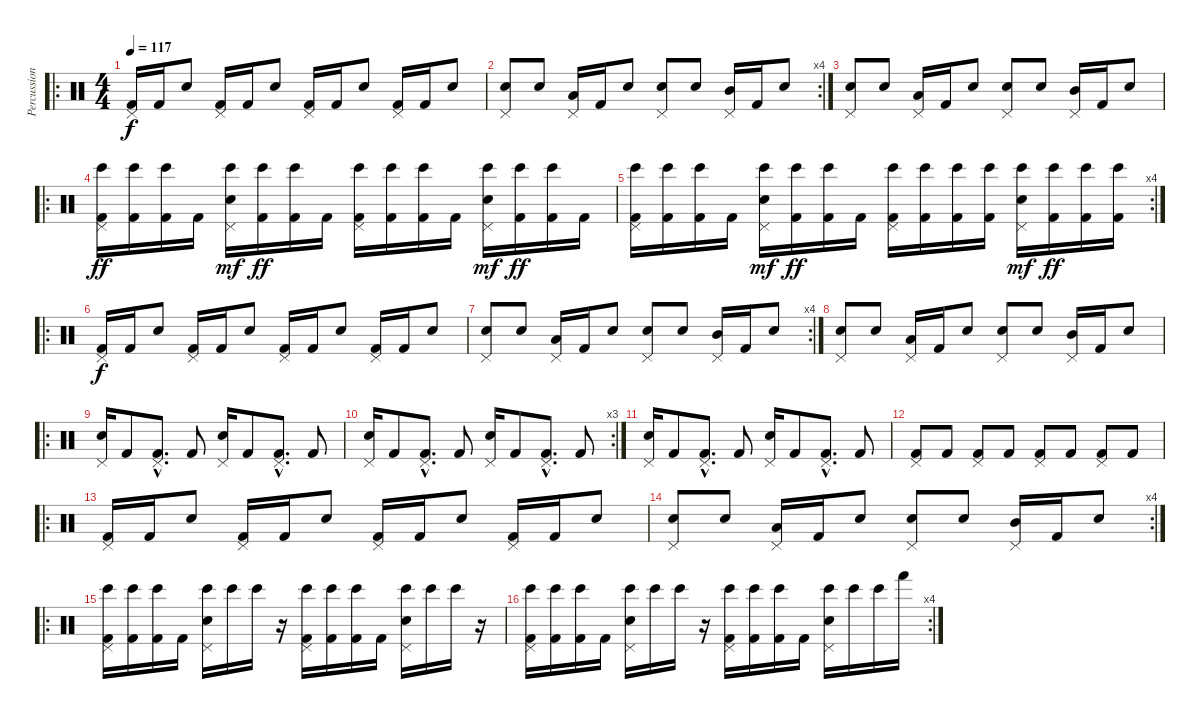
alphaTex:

\track ("Percussions" "Percussion") {instrument percussion}
\staff {score}
\articulation defaults
\ro
\ts (4 4)
\tempo 117
\clef neutral
\ks c
("Pedal Hi-Hat (hit)" "Kick (hit) 2").16{dy f} "Kick (hit) 2".16 "Snare (hit) 2".8 ("Pedal Hi-Hat (hit)" "Kick (hit) 2").16 "Kick (hit) 2".16 "Snare (hit) 2".8 ("Pedal Hi-Hat (hit)" "Kick (hit) 2").16 "Kick (hit) 2".16 "Snare (hit) 2".8 ("Pedal Hi-Hat (hit)" "Kick (hit) 2").16 "Kick (hit) 2".16 "Snare (hit) 2".8 |
\rc 4
("Pedal Hi-Hat (hit)" "Snare (hit) 2").8 "Snare (hit) 2".8 ("Pedal Hi-Hat (hit)" "Low Tom (hit)").16 "Kick (hit) 2".16 "Snare (hit) 2".8 ("Pedal Hi-Hat (hit)" "Snare (hit) 2").8 "Snare (hit) 2".8 ("Pedal Hi-Hat (hit)" "Mid Tom (hit)").16 "Kick (hit) 2".16 "Snare (hit) 2".8 |
("Pedal Hi-Hat (hit)" "Snare (hit) 2").8 "Snare (hit) 2".8 ("Pedal Hi-Hat (hit)" "Low Tom (hit)").16 "Kick (hit) 2".16 "Snare (hit) 2".8 ("Pedal Hi-Hat (hit)" "Snare (hit) 2").8 "Snare (hit) 2".8 ("Pedal Hi-Hat (hit)" "Mid Tom (hit)").16 "Kick (hit) 2".16 "Snare (hit) 2".8 |
\ro
("Pedal Hi-Hat (hit)" "Bongo High (hit)" "Kick (hit) 2").16{dy ff} ("Bongo High (hit)" "Kick (hit) 2").16 ("Bongo High (hit)" "Kick (hit) 2").16 "Kick (hit) 2".16 ("Pedal Hi-Hat (hit)" "Bongo High (hit)" "Snare (hit) 2").16{dy mf} ("Bongo High (hit)" "Kick (hit) 2").16{dy ff} ("Bongo High (hit)" "Kick (hit) 2").16 "Kick (hit) 2".16 ("Pedal Hi-Hat (hit)" "Bongo High (hit)" "Kick (hit) 2").16 ("Bongo High (hit)" "Kick (hit) 2").16 ("Bongo High (hit)" "Kick (hit) 2").16 "Kick (hit) 2".16 ("Pedal Hi-Hat (hit)" "Bongo High (hit)" "Snare (hit) 2").16{dy mf} ("Bongo High (hit)" "Kick (hit) 2").16{dy ff} ("Bongo High (hit)" "Kick (hit) 2").16 "Kick (hit) 2".16 |
\rc 4
("Pedal Hi-Hat (hit)" "Bongo High (hit)" "Kick (hit) 2").16 ("Bongo High (hit)" "Kick (hit) 2").16 ("Bongo High (hit)" "Kick (hit) 2").16 "Kick (hit) 2".16 ("Pedal Hi-Hat (hit)" "Bongo High (hit)" "Snare (hit) 2").16{dy mf} ("Bongo High (hit)" "Kick (hit) 2").16{dy ff} ("Bongo High (hit)" "Kick (hit) 2").16 "Kick (hit) 2".16 ("Pedal Hi-Hat (hit)" "Bongo High (hit)" "Kick (hit) 2").16 ("Bongo High (hit)" "Kick (hit) 2").16 ("Bongo High (hit)" "Kick (hit) 2").16 ("Bongo High (hit)" "Kick (hit) 2").16 ("Pedal Hi-Hat (hit)" "Bongo High (hit)" "Snare (hit) 2").16{dy mf} ("Bongo High (hit)" "Kick (hit) 2").16{dy ff} ("Bongo High (hit)" "Kick (hit) 2").16 ("Bongo High (hit)" "Kick (hit) 2").16 |
\ro
("Pedal Hi-Hat (hit)" "Kick (hit) 2").16{dy f} "Kick (hit) 2".16 "Snare (hit) 2".8 ("Pedal Hi-Hat (hit)" "Kick (hit) 2").16 "Kick (hit) 2".16 "Snare (hit) 2".8 ("Pedal Hi-Hat (hit)" "Kick (hit) 2").16 "Kick (hit) 2".16 "Snare (hit) 2".8 ("Pedal Hi-Hat (hit)" "Kick (hit) 2").16 "Kick (hit) 2".16 "Snare (hit) 2".8 |
\rc 4
("Pedal Hi-Hat (hit)" "Snare (hit) 2").8 "Snare (hit) 2".8 ("Pedal Hi-Hat (hit)" "Low Tom (hit)").16 "Kick (hit) 2".16 "Snare (hit) 2".8 ("Pedal Hi-Hat (hit)" "Snare (hit) 2").8 "Snare (hit) 2".8 ("Pedal Hi-Hat (hit)" "Mid Tom (hit)").16 "Kick (hit) 2".16 "Snare (hit) 2".8 |
("Pedal Hi-Hat (hit)" "Snare (hit) 2").8 "Snare (hit) 2".8 ("Pedal Hi-Hat (hit)" "Low Tom (hit)").16 "Kick (hit) 2".16 "Snare (hit) 2".8 ("Pedal Hi-Hat (hit)" "Snare (hit) 2").8 "Snare (hit) 2".8 ("Pedal Hi-Hat (hit)" "Mid Tom (hit)").16 "Kick (hit) 2".16 "Snare (hit) 2".8 |
\ro
("Pedal Hi-Hat (hit)" "Snare (hit) 2").16 "Kick (hit) 2".8 ("Pedal Hi-Hat (hit)"{hac} "Kick (hit) 2"{hac}).8{d} "Kick (hit) 2".8 ("Pedal Hi-Hat (hit)" "Snare (hit) 2").16 "Kick (hit) 2".8 ("Pedal Hi-Hat (hit)"{hac} "Kick (hit) 2"{hac}).8{d} "Kick (hit) 2".8 |
\rc 3
("Pedal Hi-Hat (hit)" "Snare (hit) 2").16 "Kick (hit) 2".8 ("Pedal Hi-Hat (hit)"{hac} "Kick (hit) 2"{hac}).8{d} "Kick (hit) 2".8 ("Pedal Hi-Hat (hit)" "Snare (hit) 2").16 "Kick (hit) 2".8 ("Pedal Hi-Hat (hit)"{hac} "Kick (hit) 2"{hac}).8{d} "Kick (hit) 2".8 |
("Pedal Hi-Hat (hit)" "Snare (hit) 2").16 "Kick (hit) 2".8 ("Pedal Hi-Hat (hit)"{hac} "Kick (hit) 2"{hac}).8{d} "Kick (hit) 2".8 ("Pedal Hi-Hat (hit)" "Snare (hit) 2").16 "Kick (hit) 2".8 ("Pedal Hi-Hat (hit)"{hac} "Kick (hit) 2"{hac}).8{d} "Kick (hit) 2".8 |
("Pedal Hi-Hat (hit)" "Kick (hit) 2").8 "Kick (hit) 2".8 ("Pedal Hi-Hat (hit)" "Kick (hit) 2").8 "Kick (hit) 2".8 ("Pedal Hi-Hat (hit)" "Kick (hit) 2").8 "Kick (hit) 2".8 ("Pedal Hi-Hat (hit)" "Kick (hit) 2").8 "Kick (hit) 2".8 |
\ro
("Pedal Hi-Hat (hit)" "Kick (hit) 2").16 "Kick (hit) 2".16 "Snare (hit) 2".8 ("Pedal Hi-Hat (hit)" "Kick (hit) 2").16 "Kick (hit) 2".16 "Snare (hit) 2".8 ("Pedal Hi-Hat (hit)" "Kick (hit) 2").16 "Kick (hit) 2".16 "Snare (hit) 2".8 ("Pedal Hi-Hat (hit)" "Kick (hit) 2").16 "Kick (hit) 2".16 "Snare (hit) 2".8 |
\rc 4
("Pedal Hi-Hat (hit)" "Snare (hit) 2").8 "Snare (hit) 2".8 ("Pedal Hi-Hat (hit)" "Low Tom (hit)").16 "Kick (hit) 2".16 "Snare (hit) 2".8 ("Pedal Hi-Hat (hit)" "Snare (hit) 2").8 "Snare (hit) 2".8 ("Pedal Hi-Hat (hit)" "Mid Tom (hit)").16 "Kick (hit) 2".16 "Snare (hit) 2".8 |
\ro
("Pedal Hi-Hat (hit)" "Bongo High (hit)" "Kick (hit) 2").16 ("Bongo High (hit)" "Kick (hit) 2").16 ("Bongo High (hit)" "Kick (hit) 2").16 "Kick (hit) 2".16 ("Pedal Hi-Hat (hit)" "Bongo High (hit)" "Snare (hit) 2").16 "Bongo High (hit)".16 "Bongo High (hit)".16 r.16 ("Pedal Hi-Hat (hit)" "Bongo High (hit)" "Kick (hit) 2").16 ("Bongo High (hit)" "Kick (hit) 2").16 ("Bongo High (hit)" "Kick (hit) 2").16 "Kick (hit) 2".16 ("Pedal Hi-Hat (hit)" "Bongo High (hit)" "Snare (hit) 2").16 "Bongo High (hit)".16 "Bongo High (hit)".16 r.16 |
\rc 4
("Pedal Hi-Hat (hit)" "Bongo High (hit)" "Kick (hit) 2").16 ("Bongo High (hit)" "Kick (hit) 2").16 ("Bongo High (hit)" "Kick (hit) 2").16 "Kick (hit) 2".16 ("Pedal Hi-Hat (hit)" "Bongo High (hit)" "Snare (hit) 2").16 "Bongo High (hit)".16 "Bongo High (hit)".16 r.16 ("Pedal Hi-Hat (hit)" "Bongo High (hit)" "Kick (hit) 2").16 ("Bongo High (hit)" "Kick (hit) 2").16 ("Bongo High (hit)" "Kick (hit) 2").16 "Kick (hit) 2".16 ("Pedal Hi-Hat (hit)" "Bongo High (hit)" "Snare (hit) 2").16 "Bongo High (hit)".16 "Bongo High (hit)".16 "Hand (hit)".16
